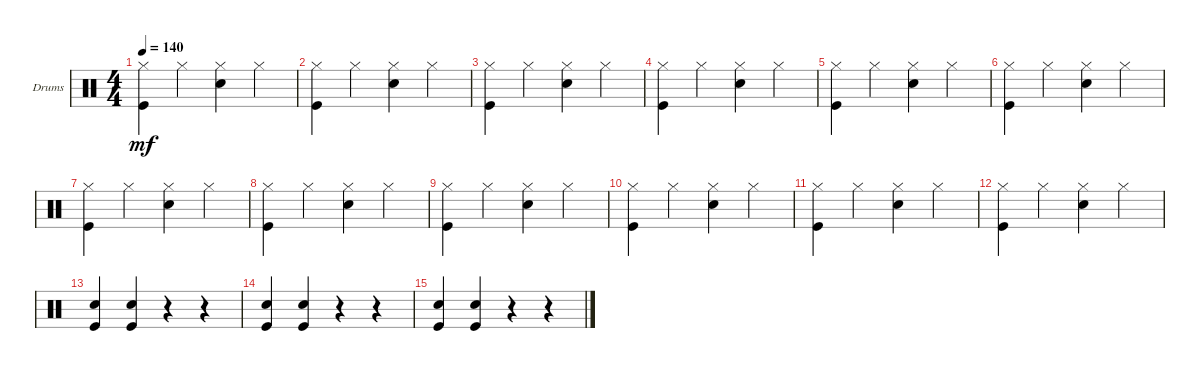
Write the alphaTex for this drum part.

\defaultSystemsLayout 4
\bracketExtendMode groupsimilarinstruments
\firstSystemTrackNameOrientation horizontal
\otherSystemsTrackNameOrientation horizontal
\track ("Drumkit" "Drums") {instrument percussion}
\staff {score}
\articulation defaults
\ts (4 4)
\tempo 140
\clef neutral
\scale
0.333333
\ks c
("Hi-Hat (closed)" "Kick (hit)").4{dy mf} "Hi-Hat (closed)".4 ("Hi-Hat (closed)" "Snare (hit) 2").4 "Hi-Hat (closed)".4 |
\scale
0.333333 ("Hi-Hat (closed)" "Kick (hit)").4 "Hi-Hat (closed)".4 ("Hi-Hat (closed)" "Snare (hit) 2").4 "Hi-Hat (closed)".4 |
\scale
0.333333 ("Hi-Hat (closed)" "Kick (hit)").4 "Hi-Hat (closed)".4 ("Hi-Hat (closed)" "Snare (hit) 2").4 "Hi-Hat (closed)".4 |
\scale
0.333333 ("Hi-Hat (closed)" "Kick (hit)").4 "Hi-Hat (closed)".4 ("Hi-Hat (closed)" "Snare (hit) 2").4 "Hi-Hat (closed)".4 |
\scale
0.333333 ("Hi-Hat (closed)" "Kick (hit)").4 "Hi-Hat (closed)".4 ("Hi-Hat (closed)" "Snare (hit) 2").4 "Hi-Hat (closed)".4 |
\scale
0.333333 ("Hi-Hat (closed)" "Kick (hit)").4 "Hi-Hat (closed)".4 ("Hi-Hat (closed)" "Snare (hit) 2").4 "Hi-Hat (closed)".4 |
\scale
0.333333 ("Hi-Hat (closed)" "Kick (hit)").4 "Hi-Hat (closed)".4 ("Hi-Hat (closed)" "Snare (hit) 2").4 "Hi-Hat (closed)".4 |
\scale
0.333333 ("Hi-Hat (closed)" "Kick (hit)").4 "Hi-Hat (closed)".4 ("Hi-Hat (closed)" "Snare (hit) 2").4 "Hi-Hat (closed)".4 |
\scale
0.333333 ("Hi-Hat (closed)" "Kick (hit)").4 "Hi-Hat (closed)".4 ("Hi-Hat (closed)" "Snare (hit) 2").4 "Hi-Hat (closed)".4 |
\scale
0.333333 ("Hi-Hat (closed)" "Kick (hit)").4 "Hi-Hat (closed)".4 ("Hi-Hat (closed)" "Snare (hit) 2").4 "Hi-Hat (closed)".4 |
\scale
0.333333 ("Hi-Hat (closed)" "Kick (hit)").4 "Hi-Hat (closed)".4 ("Hi-Hat (closed)" "Snare (hit) 2").4 "Hi-Hat (closed)".4 |
\scale
0.333333 ("Hi-Hat (closed)" "Kick (hit)").4 "Hi-Hat (closed)".4 ("Hi-Hat (closed)" "Snare (hit) 2").4 "Hi-Hat (closed)".4 |
\scale
0.333333 ("Kick (hit)" "Snare (hit) 2").4 ("Snare (hit) 2" "Kick (hit)").4 r.4 r.4 |
\scale
0.333333 ("Kick (hit)" "Snare (hit) 2").4 ("Snare (hit) 2" "Kick (hit)").4 r.4 r.4 |
\scale
0.333333 ("Kick (hit)" "Snare (hit) 2").4 ("Snare (hit) 2" "Kick (hit)").4 r.4 r.4 |
\scale
0.333333
